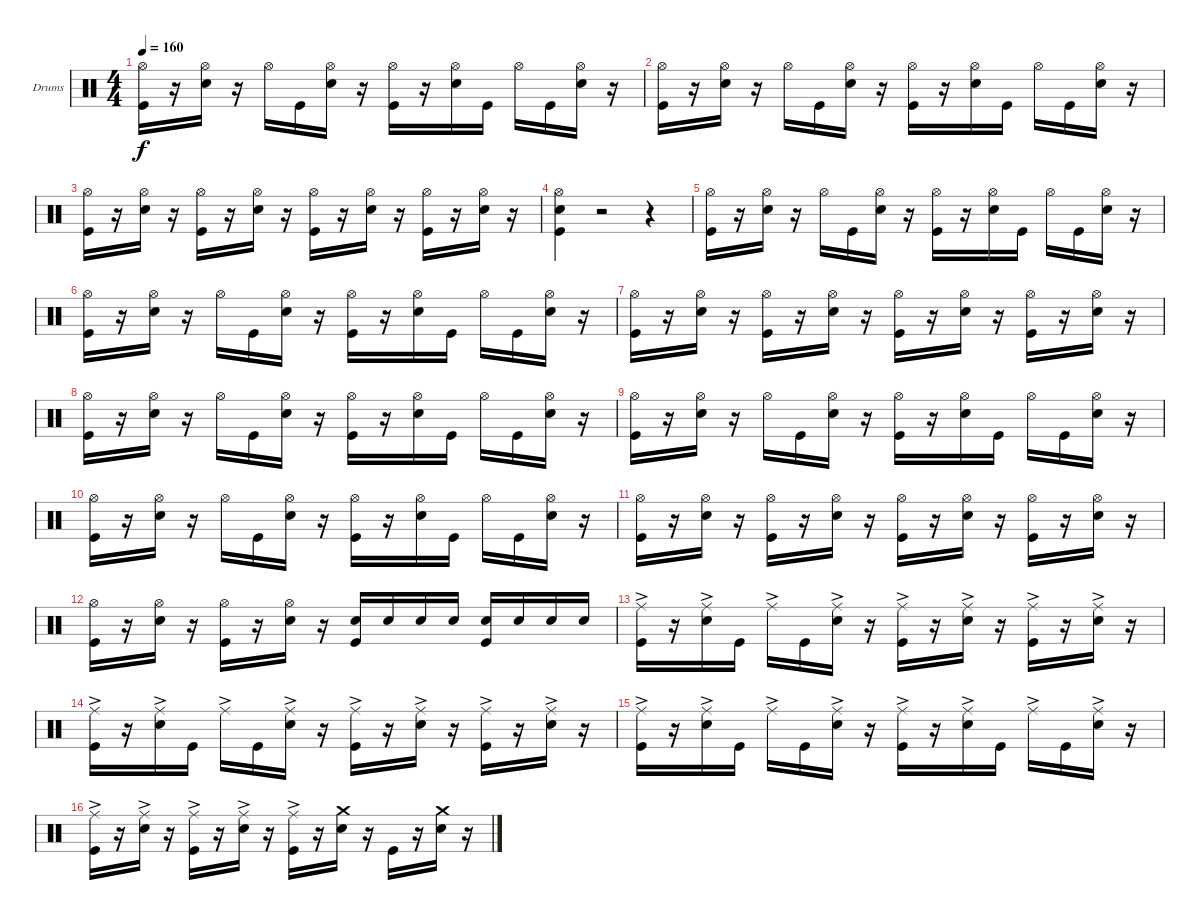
\defaultSystemsLayout 4
\bracketExtendMode groupsimilarinstruments
\firstSystemTrackNameOrientation horizontal
\otherSystemsTrackNameOrientation horizontal
\track ("Drumkit" "Drums") {instrument percussion}
\staff {score}
\articulation defaults
\ts (4 4)
\tempo 160
\clef neutral
\ks c
("Hi-Hat (open)" "Kick (hit)").16{dy f} r.16 ("Hi-Hat (open)" "Snare (hit) 2").16 r.16 "Hi-Hat (open)".16 "Kick (hit)".16 ("Hi-Hat (open)" "Snare (hit) 2").16 r.16 ("Hi-Hat (open)" "Kick (hit)").16 r.16 ("Hi-Hat (open)" "Snare (hit) 2").16 "Kick (hit)".16 "Hi-Hat (open)".16 "Kick (hit)".16 ("Hi-Hat (open)" "Snare (hit) 2").16 r.16 |
("Hi-Hat (open)" "Kick (hit)").16 r.16 ("Hi-Hat (open)" "Snare (hit) 2").16 r.16 "Hi-Hat (open)".16 "Kick (hit)".16 ("Hi-Hat (open)" "Snare (hit) 2").16 r.16 ("Hi-Hat (open)" "Kick (hit)").16 r.16 ("Hi-Hat (open)" "Snare (hit) 2").16 "Kick (hit)".16 "Hi-Hat (open)".16 "Kick (hit)".16 ("Hi-Hat (open)" "Snare (hit) 2").16 r.16 |
("Hi-Hat (open)" "Kick (hit)").16 r.16 ("Hi-Hat (open)" "Snare (hit) 2").16 r.16 ("Hi-Hat (open)" "Kick (hit)").16 r.16 ("Hi-Hat (open)" "Snare (hit) 2").16 r.16 ("Hi-Hat (open)" "Kick (hit)").16 r.16 ("Hi-Hat (open)" "Snare (hit) 2").16 r.16 ("Hi-Hat (open)" "Kick (hit)").16 r.16 ("Hi-Hat (open)" "Snare (hit) 2").16 r.16 |
("Hi-Hat (open)" "Snare (hit) 2" "Kick (hit)").4 r.2 r.4 |
("Hi-Hat (open)" "Kick (hit)").16 r.16 ("Hi-Hat (open)" "Snare (hit) 2").16 r.16 "Hi-Hat (open)".16 "Kick (hit)".16 ("Hi-Hat (open)" "Snare (hit) 2").16 r.16 ("Hi-Hat (open)" "Kick (hit)").16 r.16 ("Hi-Hat (open)" "Snare (hit) 2").16 "Kick (hit)".16 "Hi-Hat (open)".16 "Kick (hit)".16 ("Hi-Hat (open)" "Snare (hit) 2").16 r.16 |
("Hi-Hat (open)" "Kick (hit)").16 r.16 ("Hi-Hat (open)" "Snare (hit) 2").16 r.16 "Hi-Hat (open)".16 "Kick (hit)".16 ("Hi-Hat (open)" "Snare (hit) 2").16 r.16 ("Hi-Hat (open)" "Kick (hit)").16 r.16 ("Hi-Hat (open)" "Snare (hit) 2").16 "Kick (hit)".16 "Hi-Hat (open)".16 "Kick (hit)".16 ("Hi-Hat (open)" "Snare (hit) 2").16 r.16 |
("Hi-Hat (open)" "Kick (hit)").16 r.16 ("Hi-Hat (open)" "Snare (hit) 2").16 r.16 ("Hi-Hat (open)" "Kick (hit)").16 r.16 ("Hi-Hat (open)" "Snare (hit) 2").16 r.16 ("Hi-Hat (open)" "Kick (hit)").16 r.16 ("Hi-Hat (open)" "Snare (hit) 2").16 r.16 ("Hi-Hat (open)" "Kick (hit)").16 r.16 ("Hi-Hat (open)" "Snare (hit) 2").16 r.16 |
("Hi-Hat (open)" "Kick (hit)").16 r.16 ("Hi-Hat (open)" "Snare (hit) 2").16 r.16 "Hi-Hat (open)".16 "Kick (hit)".16 ("Hi-Hat (open)" "Snare (hit) 2").16 r.16 ("Hi-Hat (open)" "Kick (hit)").16 r.16 ("Hi-Hat (open)" "Snare (hit) 2").16 "Kick (hit)".16 "Hi-Hat (open)".16 "Kick (hit)".16 ("Hi-Hat (open)" "Snare (hit) 2").16 r.16 |
("Hi-Hat (open)" "Kick (hit)").16 r.16 ("Hi-Hat (open)" "Snare (hit) 2").16 r.16 "Hi-Hat (open)".16 "Kick (hit)".16 ("Hi-Hat (open)" "Snare (hit) 2").16 r.16 ("Hi-Hat (open)" "Kick (hit)").16 r.16 ("Hi-Hat (open)" "Snare (hit) 2").16 "Kick (hit)".16 "Hi-Hat (open)".16 "Kick (hit)".16 ("Hi-Hat (open)" "Snare (hit) 2").16 r.16 |
("Hi-Hat (open)" "Kick (hit)").16 r.16 ("Hi-Hat (open)" "Snare (hit) 2").16 r.16 "Hi-Hat (open)".16 "Kick (hit)".16 ("Hi-Hat (open)" "Snare (hit) 2").16 r.16 ("Hi-Hat (open)" "Kick (hit)").16 r.16 ("Hi-Hat (open)" "Snare (hit) 2").16 "Kick (hit)".16 "Hi-Hat (open)".16 "Kick (hit)".16 ("Hi-Hat (open)" "Snare (hit) 2").16 r.16 |
("Hi-Hat (open)" "Kick (hit)").16 r.16 ("Hi-Hat (open)" "Snare (hit) 2").16 r.16 ("Hi-Hat (open)" "Kick (hit)").16 r.16 ("Hi-Hat (open)" "Snare (hit) 2").16 r.16 ("Hi-Hat (open)" "Kick (hit)").16 r.16 ("Hi-Hat (open)" "Snare (hit) 2").16 r.16 ("Hi-Hat (open)" "Kick (hit)").16 r.16 ("Hi-Hat (open)" "Snare (hit) 2").16 r.16 |
("Hi-Hat (open)" "Kick (hit)").16 r.16 ("Hi-Hat (open)" "Snare (hit) 2").16 r.16 ("Hi-Hat (open)" "Kick (hit)").16 r.16 ("Hi-Hat (open)" "Snare (hit) 2").16 r.16 ("Snare (hit) 2" "Kick (hit)").16 "Snare (hit) 2".16 "Snare (hit) 2".16 "Snare (hit) 2".16 ("Snare (hit) 2" "Kick (hit)").16 "Snare (hit) 2".16 "Snare (hit) 2".16 "Snare (hit) 2".16 |
("Ride (middle)"{ac} "Kick (hit)").16 r.16 ("Ride (middle)"{ac} "Snare (hit) 2").16 "Kick (hit)".16 "Ride (middle)"{ac}.16 "Kick (hit)".16 ("Ride (middle)"{ac} "Snare (hit) 2").16 r.16 ("Ride (middle)"{ac} "Kick (hit)").16 r.16 ("Ride (middle)"{ac} "Snare (hit) 2").16 r.16 ("Ride (middle)"{ac} "Kick (hit)").16 r.16 ("Ride (middle)"{ac} "Snare (hit) 2").16 r.16 |
("Ride (middle)"{ac} "Kick (hit)").16 r.16 ("Ride (middle)"{ac} "Snare (hit) 2").16 "Kick (hit)".16 "Ride (middle)"{ac}.16 "Kick (hit)".16 ("Ride (middle)"{ac} "Snare (hit) 2").16 r.16 ("Ride (middle)"{ac} "Kick (hit)").16 r.16 ("Ride (middle)"{ac} "Snare (hit) 2").16 r.16 ("Ride (middle)"{ac} "Kick (hit)").16 r.16 ("Ride (middle)"{ac} "Snare (hit) 2").16 r.16 |
("Ride (middle)"{ac} "Kick (hit)").16 r.16 ("Ride (middle)"{ac} "Snare (hit) 2").16 "Kick (hit)".16 "Ride (middle)"{ac}.16 "Kick (hit)".16 ("Ride (middle)"{ac} "Snare (hit) 2").16 r.16 ("Ride (middle)"{ac} "Kick (hit)").16 r.16 ("Ride (middle)"{ac} "Snare (hit) 2").16 "Kick (hit)".16 "Ride (middle)"{ac}.16 "Kick (hit)".16 ("Ride (middle)"{ac} "Snare (hit) 2").16 r.16 |
("Ride (middle)"{ac} "Kick (hit)").16 r.16 ("Ride (middle)"{ac} "Snare (hit) 2").16 r.16 ("Ride (middle)"{ac} "Kick (hit)").16 r.16 ("Ride (middle)"{ac} "Snare (hit) 2").16 r.16 ("Ride (middle)"{ac} "Kick (hit)").16 r.16 ("Crash medium (hit)" "Snare (hit) 2").16 r.16 "Kick (hit)".16 r.16 ("Crash medium (hit)" "Snare (hit) 2").16 r.16
